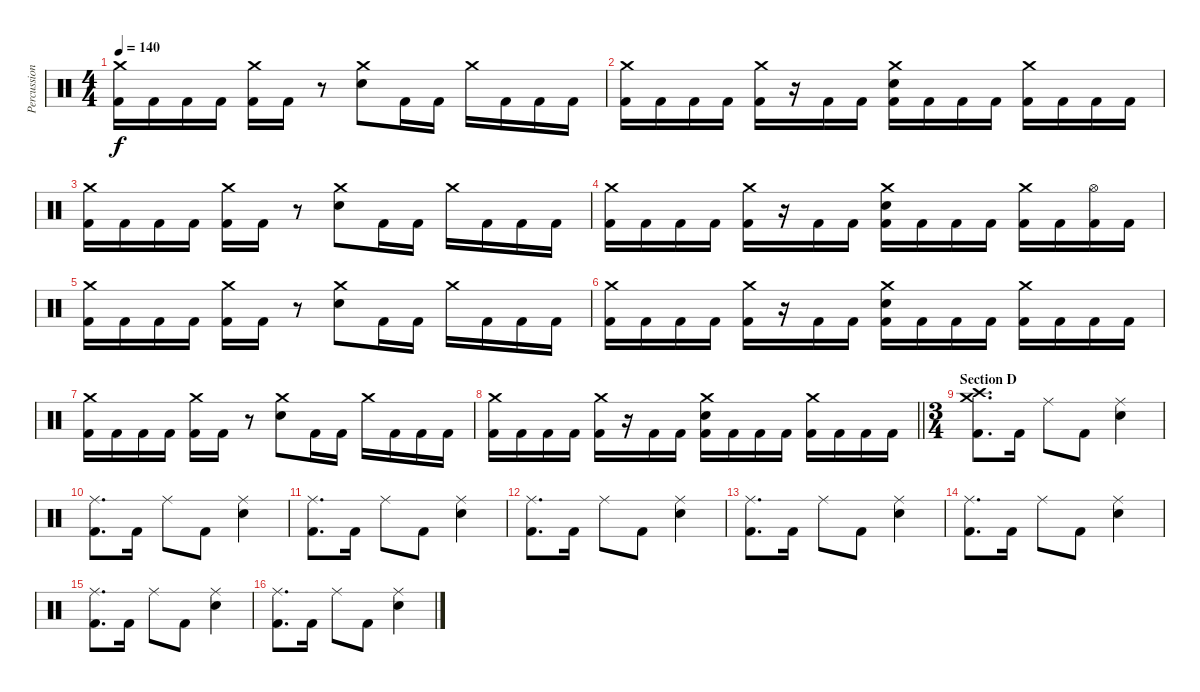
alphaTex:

\track ("Percussion" "Percussion") {instrument percussion}
\staff {score}
\articulation defaults
\ts (4 4)
\tempo 140
\clef neutral
\ks c
("Crash medium (hit)" "Kick (hit) 2").16{dy f} "Kick (hit) 2".16 "Kick (hit) 2".16 "Kick (hit) 2".16 ("Crash medium (hit)" "Kick (hit) 2").16 "Kick (hit) 2".16 r.8 ("Crash medium (hit)" "Electric Snare (hit)").8 "Kick (hit) 2".16 "Kick (hit) 2".16 "Crash medium (hit)".16 "Kick (hit) 2".16 "Kick (hit) 2".16 "Kick (hit) 2".16 |
("Crash medium (hit)" "Kick (hit) 2").16 "Kick (hit) 2".16 "Kick (hit) 2".16 "Kick (hit) 2".16 ("Crash medium (hit)" "Kick (hit) 2").16 r.16 "Kick (hit) 2".16 "Kick (hit) 2".16 ("Crash medium (hit)" "Electric Snare (hit)" "Kick (hit) 2").16 "Kick (hit) 2".16 "Kick (hit) 2".16 "Kick (hit) 2".16 ("Crash medium (hit)" "Kick (hit) 2").16 "Kick (hit) 2".16 "Kick (hit) 2".16 "Kick (hit) 2".16 |
("Crash medium (hit)" "Kick (hit) 2").16 "Kick (hit) 2".16 "Kick (hit) 2".16 "Kick (hit) 2".16 ("Crash medium (hit)" "Kick (hit) 2").16 "Kick (hit) 2".16 r.8 ("Crash medium (hit)" "Electric Snare (hit)").8 "Kick (hit) 2".16 "Kick (hit) 2".16 "Crash medium (hit)".16 "Kick (hit) 2".16 "Kick (hit) 2".16 "Kick (hit) 2".16 |
("Crash medium (hit)" "Kick (hit) 2").16 "Kick (hit) 2".16 "Kick (hit) 2".16 "Kick (hit) 2".16 ("Crash medium (hit)" "Kick (hit) 2").16 r.16 "Kick (hit) 2".16 "Kick (hit) 2".16 ("Crash medium (hit)" "Electric Snare (hit)" "Kick (hit) 2").16 "Kick (hit) 2".16 "Kick (hit) 2".16 "Kick (hit) 2".16 ("Crash medium (hit)" "Kick (hit) 2").16 "Kick (hit) 2".16 ("Hi-Hat (open)" "Kick (hit) 2").16 "Kick (hit) 2".16 |
("Crash medium (hit)" "Kick (hit) 2").16 "Kick (hit) 2".16 "Kick (hit) 2".16 "Kick (hit) 2".16 ("Crash medium (hit)" "Kick (hit) 2").16 "Kick (hit) 2".16 r.8 ("Crash medium (hit)" "Electric Snare (hit)").8 "Kick (hit) 2".16 "Kick (hit) 2".16 "Crash medium (hit)".16 "Kick (hit) 2".16 "Kick (hit) 2".16 "Kick (hit) 2".16 |
("Crash medium (hit)" "Kick (hit) 2").16 "Kick (hit) 2".16 "Kick (hit) 2".16 "Kick (hit) 2".16 ("Crash medium (hit)" "Kick (hit) 2").16 r.16 "Kick (hit) 2".16 "Kick (hit) 2".16 ("Crash medium (hit)" "Electric Snare (hit)" "Kick (hit) 2").16 "Kick (hit) 2".16 "Kick (hit) 2".16 "Kick (hit) 2".16 ("Crash medium (hit)" "Kick (hit) 2").16 "Kick (hit) 2".16 "Kick (hit) 2".16 "Kick (hit) 2".16 |
("Crash medium (hit)" "Kick (hit) 2").16 "Kick (hit) 2".16 "Kick (hit) 2".16 "Kick (hit) 2".16 ("Crash medium (hit)" "Kick (hit) 2").16 "Kick (hit) 2".16 r.8 ("Crash medium (hit)" "Electric Snare (hit)").8 "Kick (hit) 2".16 "Kick (hit) 2".16 "Crash medium (hit)".16 "Kick (hit) 2".16 "Kick (hit) 2".16 "Kick (hit) 2".16 |
\barLineRight lightlight
("Crash medium (hit)" "Kick (hit) 2").16 "Kick (hit) 2".16 "Kick (hit) 2".16 "Kick (hit) 2".16 ("Crash medium (hit)" "Kick (hit) 2").16 r.16 "Kick (hit) 2".16 "Kick (hit) 2".16 ("Crash medium (hit)" "Electric Snare (hit)" "Kick (hit) 2").16 "Kick (hit) 2".16 "Kick (hit) 2".16 "Kick (hit) 2".16 ("Crash medium (hit)" "Kick (hit) 2").16 "Kick (hit) 2".16 "Kick (hit) 2".16 "Kick (hit) 2".16 |
\ts (3 4)
\section ("" "Section D")
("Crash medium (hit)" "Crash high (hit)" "Kick (hit) 2").8{d} "Kick (hit) 2".16 "Ride (middle)".8 "Kick (hit) 2".8 ("Ride (middle)" "Electric Snare (hit)").4 |
("Ride (middle)" "Kick (hit) 2").8{d} "Kick (hit) 2".16 "Ride (middle)".8 "Kick (hit) 2".8 ("Ride (middle)" "Electric Snare (hit)").4 |
("Ride (middle)" "Kick (hit) 2").8{d} "Kick (hit) 2".16 "Ride (middle)".8 "Kick (hit) 2".8 ("Ride (middle)" "Electric Snare (hit)").4 |
("Ride (middle)" "Kick (hit) 2").8{d} "Kick (hit) 2".16 "Ride (middle)".8 "Kick (hit) 2".8 ("Ride (middle)" "Electric Snare (hit)").4 |
("Ride (middle)" "Kick (hit) 2").8{d} "Kick (hit) 2".16 "Ride (middle)".8 "Kick (hit) 2".8 ("Ride (middle)" "Electric Snare (hit)").4 |
("Ride (middle)" "Kick (hit) 2").8{d} "Kick (hit) 2".16 "Ride (middle)".8 "Kick (hit) 2".8 ("Ride (middle)" "Electric Snare (hit)").4 |
("Ride (middle)" "Kick (hit) 2").8{d} "Kick (hit) 2".16 "Ride (middle)".8 "Kick (hit) 2".8 ("Ride (middle)" "Electric Snare (hit)").4 |
("Ride (middle)" "Kick (hit) 2").8{d} "Kick (hit) 2".16 "Ride (middle)".8 "Kick (hit) 2".8 ("Ride (middle)" "Electric Snare (hit)").4
